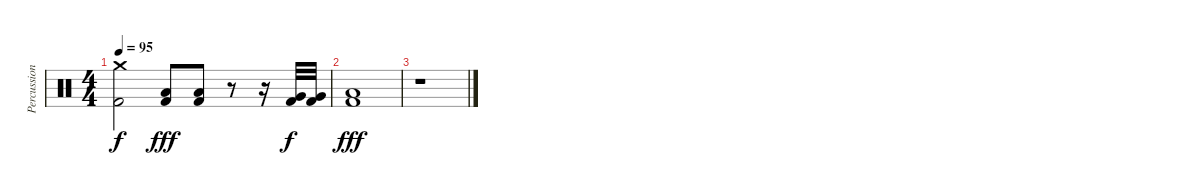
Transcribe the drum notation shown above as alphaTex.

\track ("Percussion" "Percussion") {instrument percussion}
\staff {score}
\articulation defaults
\ts (4 4)
\tempo 95
\clef neutral
\ks c
("Kick (hit) 2" "Crash medium (hit)").2{dy f} ("Kick (hit) 2" "Low Floor Tom (hit)").8{dy fff} ("Kick (hit) 2" "Low Floor Tom (hit)").8 r.8 r.16 ("Kick (hit) 2" "Very Low Tom (hit)").32{dy f} ("Kick (hit) 2" "Very Low Tom (hit)").32 |
("Kick (hit) 2" "Low Floor Tom (hit)").1{dy fff} |
r.1
